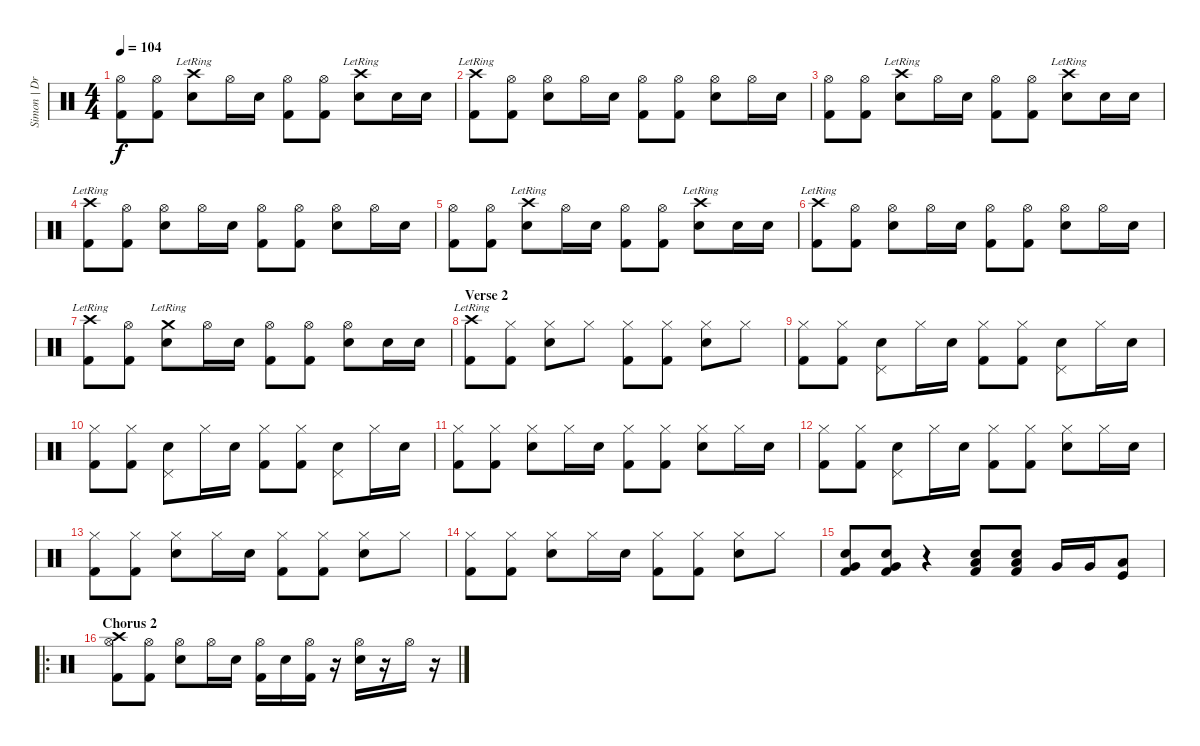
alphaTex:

\track ("Simon | Drums" "Simon | Dr") {instrument percussion}
\staff {score}
\articulation defaults
\ts (4 4)
\tempo 104
\clef neutral
\ks c
("Hi-Hat (open)" "Kick (hit) 2").8{dy f} ("Hi-Hat (open)" "Kick (hit) 2").8 ("Crash high (hit)"{lr} "Electric Snare (hit)").8 "Hi-Hat (open)".16 "Electric Snare (hit)".16 ("Hi-Hat (open)" "Kick (hit) 2").8 ("Hi-Hat (open)" "Kick (hit) 2").8 ("Crash high (hit)"{lr} "Electric Snare (hit)").8 "Electric Snare (hit)".16 "Electric Snare (hit)".16 |
("Crash high (hit)"{lr} "Kick (hit) 2").8 ("Hi-Hat (open)" "Kick (hit) 2").8 ("Hi-Hat (open)" "Electric Snare (hit)").8 "Hi-Hat (open)".16 "Electric Snare (hit)".16 ("Hi-Hat (open)" "Kick (hit) 2").8 ("Hi-Hat (open)" "Kick (hit) 2").8 ("Hi-Hat (open)" "Electric Snare (hit)").8 "Hi-Hat (open)".16 "Electric Snare (hit)".16 |
("Hi-Hat (open)" "Kick (hit) 2").8 ("Hi-Hat (open)" "Kick (hit) 2").8 ("Crash high (hit)"{lr} "Electric Snare (hit)").8 "Hi-Hat (open)".16 "Electric Snare (hit)".16 ("Hi-Hat (open)" "Kick (hit) 2").8 ("Hi-Hat (open)" "Kick (hit) 2").8 ("Crash high (hit)"{lr} "Electric Snare (hit)").8 "Electric Snare (hit)".16 "Electric Snare (hit)".16 |
("Crash high (hit)"{lr} "Kick (hit) 2").8 ("Hi-Hat (open)" "Kick (hit) 2").8 ("Hi-Hat (open)" "Electric Snare (hit)").8 "Hi-Hat (open)".16 "Electric Snare (hit)".16 ("Hi-Hat (open)" "Kick (hit) 2").8 ("Hi-Hat (open)" "Kick (hit) 2").8 ("Hi-Hat (open)" "Electric Snare (hit)").8 "Hi-Hat (open)".16 "Electric Snare (hit)".16 |
("Hi-Hat (open)" "Kick (hit) 2").8 ("Hi-Hat (open)" "Kick (hit) 2").8 ("Crash high (hit)"{lr} "Electric Snare (hit)").8 "Hi-Hat (open)".16 "Electric Snare (hit)".16 ("Hi-Hat (open)" "Kick (hit) 2").8 ("Hi-Hat (open)" "Kick (hit) 2").8 ("Crash high (hit)"{lr} "Electric Snare (hit)").8 "Electric Snare (hit)".16 "Electric Snare (hit)".16 |
("Crash high (hit)"{lr} "Kick (hit) 2").8 ("Hi-Hat (open)" "Kick (hit) 2").8 ("Hi-Hat (open)" "Electric Snare (hit)").8 "Hi-Hat (open)".16 "Electric Snare (hit)".16 ("Hi-Hat (open)" "Kick (hit) 2").8 ("Hi-Hat (open)" "Kick (hit) 2").8 ("Hi-Hat (open)" "Electric Snare (hit)").8 "Hi-Hat (open)".16 "Electric Snare (hit)".16 |
("Crash high (hit)"{lr} "Kick (hit) 2").8 ("Hi-Hat (open)" "Kick (hit) 2").8 ("Crash medium (hit)"{lr} "Electric Snare (hit)").8 "Hi-Hat (open)".16 "Electric Snare (hit)".16 ("Hi-Hat (open)" "Kick (hit) 2").8 ("Hi-Hat (open)" "Kick (hit) 2").8 ("Hi-Hat (open)" "Electric Snare (hit)").8 "Electric Snare (hit)".16 "Electric Snare (hit)".16 |
\section ("" "Verse 2")
("Crash high (hit)"{lr} "Kick (hit) 2").8 ("Hi-Hat (closed)" "Kick (hit) 2").8 ("Hi-Hat (closed)" "Electric Snare (hit)").8 "Hi-Hat (closed)".8 ("Hi-Hat (closed)" "Kick (hit) 2").8 ("Hi-Hat (closed)" "Kick (hit) 2").8 ("Hi-Hat (closed)" "Electric Snare (hit)").8 "Hi-Hat (closed)".8 |
("Hi-Hat (closed)" "Kick (hit) 2").8 ("Hi-Hat (closed)" "Kick (hit) 2").8 ("Pedal Hi-Hat (hit)" "Electric Snare (hit)").8 "Hi-Hat (closed)".16 "Electric Snare (hit)".16 ("Hi-Hat (closed)" "Kick (hit) 2").8 ("Hi-Hat (closed)" "Kick (hit) 2").8 ("Pedal Hi-Hat (hit)" "Electric Snare (hit)").8 "Hi-Hat (closed)".16 "Electric Snare (hit)".16 |
("Hi-Hat (closed)" "Kick (hit) 2").8 ("Hi-Hat (closed)" "Kick (hit) 2").8 ("Pedal Hi-Hat (hit)" "Electric Snare (hit)").8 "Hi-Hat (closed)".16 "Electric Snare (hit)".16 ("Hi-Hat (closed)" "Kick (hit) 2").8 ("Hi-Hat (closed)" "Kick (hit) 2").8 ("Pedal Hi-Hat (hit)" "Electric Snare (hit)").8 "Hi-Hat (closed)".16 "Electric Snare (hit)".16 |
("Hi-Hat (closed)" "Kick (hit) 2").8 ("Hi-Hat (closed)" "Kick (hit) 2").8 ("Hi-Hat (closed)" "Electric Snare (hit)").8 "Hi-Hat (closed)".16 "Electric Snare (hit)".16 ("Hi-Hat (closed)" "Kick (hit) 2").8 ("Hi-Hat (closed)" "Kick (hit) 2").8 ("Hi-Hat (closed)" "Electric Snare (hit)").8 "Hi-Hat (closed)".16 "Electric Snare (hit)".16 |
("Hi-Hat (closed)" "Kick (hit) 2").8 ("Hi-Hat (closed)" "Kick (hit) 2").8 ("Pedal Hi-Hat (hit)" "Electric Snare (hit)").8 "Hi-Hat (closed)".16 "Electric Snare (hit)".16 ("Hi-Hat (closed)" "Kick (hit) 2").8 ("Hi-Hat (closed)" "Kick (hit) 2").8 ("Hi-Hat (closed)" "Electric Snare (hit)").8 "Hi-Hat (closed)".16 "Electric Snare (hit)".16 |
("Hi-Hat (closed)" "Kick (hit) 2").8 ("Hi-Hat (closed)" "Kick (hit) 2").8 ("Hi-Hat (closed)" "Electric Snare (hit)").8 "Hi-Hat (closed)".16 "Electric Snare (hit)".16 ("Hi-Hat (closed)" "Kick (hit) 2").8 ("Hi-Hat (closed)" "Kick (hit) 2").8 ("Hi-Hat (closed)" "Electric Snare (hit)").8 "Hi-Hat (closed)".8 |
("Hi-Hat (closed)" "Kick (hit) 2").8 ("Hi-Hat (closed)" "Kick (hit) 2").8 ("Hi-Hat (closed)" "Electric Snare (hit)").8 "Hi-Hat (closed)".16 "Electric Snare (hit)".16 ("Hi-Hat (closed)" "Kick (hit) 2").8 ("Hi-Hat (closed)" "Kick (hit) 2").8 ("Hi-Hat (closed)" "Electric Snare (hit)").8 "Hi-Hat (closed)".8 |
("Very Low Tom (hit)" "Electric Snare (hit)" "Kick (hit) 2").8 ("Very Low Tom (hit)" "Electric Snare (hit)" "Kick (hit) 2").8 r.4 ("Low Floor Tom (hit)" "Electric Snare (hit)" "Kick (hit) 2").8 ("Low Floor Tom (hit)" "Electric Snare (hit)" "Kick (hit) 2").8 "Very Low Tom (hit)".16 "Very Low Tom (hit)".16 ("Low Floor Tom (hit)" "Kick (hit)").8 |
\ro
\section ("" "Chorus 2")
("Crash high (hit)" "Hi-Hat (open)" "Kick (hit) 2").8 ("Hi-Hat (open)" "Kick (hit) 2").8 ("Hi-Hat (open)" "Electric Snare (hit)").8 "Hi-Hat (open)".16 "Electric Snare (hit)".16 ("Hi-Hat (open)" "Kick (hit) 2").16 "Electric Snare (hit)".16 ("Hi-Hat (open)" "Kick (hit) 2").16 r.16 ("Hi-Hat (open)" "Electric Snare (hit)").16 r.16 "Hi-Hat (open)".16 r.16
